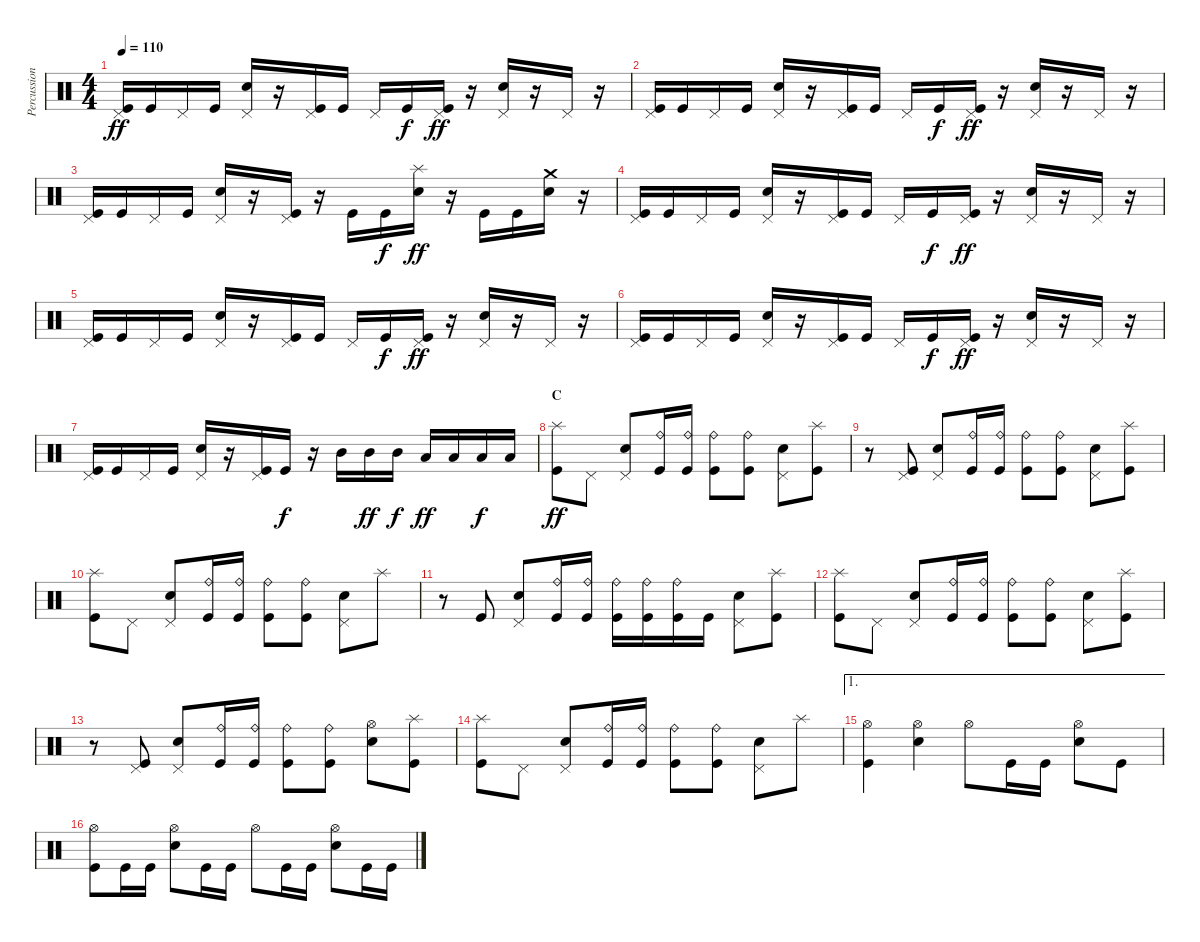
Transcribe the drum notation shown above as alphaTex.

\track ("Percussion" "Percussion") {instrument percussion}
\staff {score}
\articulation defaults
\ts (4 4)
\tempo 110
\clef neutral
\ks c
("Pedal Hi-Hat (hit)" "Kick (hit)").16{dy ff} "Kick (hit)".16 "Pedal Hi-Hat (hit)".16 "Kick (hit)".16 ("Pedal Hi-Hat (hit)" "Snare (hit) 2").16 r.16 ("Pedal Hi-Hat (hit)" "Kick (hit)").16 "Kick (hit)".16 "Pedal Hi-Hat (hit)".16 "Kick (hit)".16{dy f} ("Pedal Hi-Hat (hit)" "Kick (hit)").16{dy ff} r.16 ("Pedal Hi-Hat (hit)" "Snare (hit) 2").16 r.16 "Pedal Hi-Hat (hit)".16 r.16 |
("Pedal Hi-Hat (hit)" "Kick (hit)").16 "Kick (hit)".16 "Pedal Hi-Hat (hit)".16 "Kick (hit)".16 ("Pedal Hi-Hat (hit)" "Snare (hit) 2").16 r.16 ("Pedal Hi-Hat (hit)" "Kick (hit)").16 "Kick (hit)".16 "Pedal Hi-Hat (hit)".16 "Kick (hit)".16{dy f} ("Pedal Hi-Hat (hit)" "Kick (hit)").16{dy ff} r.16 ("Pedal Hi-Hat (hit)" "Snare (hit) 2").16 r.16 "Pedal Hi-Hat (hit)".16 r.16 |
("Pedal Hi-Hat (hit)" "Kick (hit)").16 "Kick (hit)".16 "Pedal Hi-Hat (hit)".16 "Kick (hit)".16 ("Pedal Hi-Hat (hit)" "Snare (hit) 2").16 r.16 ("Pedal Hi-Hat (hit)" "Kick (hit)").16 r.16 "Kick (hit)".16 "Kick (hit)".16{dy f} ("Splash (hit)" "Snare (hit) 2").16{dy ff} r.16 "Kick (hit)".16 "Kick (hit)".16 ("Crash medium (hit)" "Snare (hit) 2").16 r.16 |
("Pedal Hi-Hat (hit)" "Kick (hit)").16 "Kick (hit)".16 "Pedal Hi-Hat (hit)".16 "Kick (hit)".16 ("Pedal Hi-Hat (hit)" "Snare (hit) 2").16 r.16 ("Pedal Hi-Hat (hit)" "Kick (hit)").16 "Kick (hit)".16 "Pedal Hi-Hat (hit)".16 "Kick (hit)".16{dy f} ("Pedal Hi-Hat (hit)" "Kick (hit)").16{dy ff} r.16 ("Pedal Hi-Hat (hit)" "Snare (hit) 2").16 r.16 "Pedal Hi-Hat (hit)".16 r.16 |
("Pedal Hi-Hat (hit)" "Kick (hit)").16 "Kick (hit)".16 "Pedal Hi-Hat (hit)".16 "Kick (hit)".16 ("Pedal Hi-Hat (hit)" "Snare (hit) 2").16 r.16 ("Pedal Hi-Hat (hit)" "Kick (hit)").16 "Kick (hit)".16 "Pedal Hi-Hat (hit)".16 "Kick (hit)".16{dy f} ("Pedal Hi-Hat (hit)" "Kick (hit)").16{dy ff} r.16 ("Pedal Hi-Hat (hit)" "Snare (hit) 2").16 r.16 "Pedal Hi-Hat (hit)".16 r.16 |
("Pedal Hi-Hat (hit)" "Kick (hit)").16 "Kick (hit)".16 "Pedal Hi-Hat (hit)".16 "Kick (hit)".16 ("Pedal Hi-Hat (hit)" "Snare (hit) 2").16 r.16 ("Pedal Hi-Hat (hit)" "Kick (hit)").16 "Kick (hit)".16 "Pedal Hi-Hat (hit)".16 "Kick (hit)".16{dy f} ("Pedal Hi-Hat (hit)" "Kick (hit)").16{dy ff} r.16 ("Pedal Hi-Hat (hit)" "Snare (hit) 2").16 r.16 "Pedal Hi-Hat (hit)".16 r.16 |
("Pedal Hi-Hat (hit)" "Kick (hit)").16 "Kick (hit)".16 "Pedal Hi-Hat (hit)".16 "Kick (hit)".16 ("Pedal Hi-Hat (hit)" "Snare (hit) 2").16 r.16 ("Pedal Hi-Hat (hit)" "Kick (hit)").16 "Kick (hit)".16{dy f} r.16 "Mid Tom (hit)".16 "Mid Tom (hit)".16{dy ff} "Mid Tom (hit)".16{dy f} "Low Tom (hit)".16{dy ff} "Low Tom (hit)".16 "Low Tom (hit)".16{dy f} "Low Tom (hit)".16 |
\section ("" "C")
("Splash (hit)" "Kick (hit)").8{dy ff} "Pedal Hi-Hat (hit)".8 ("Pedal Hi-Hat (hit)" "Snare (hit) 2").8 ("Ride (bell)" "Kick (hit)").16 ("Ride (bell)" "Kick (hit)").16 ("Ride (bell)" "Kick (hit)").8 ("Ride (bell)" "Kick (hit)").8 ("Pedal Hi-Hat (hit)" "Snare (hit) 2").8 ("Splash (hit)" "Kick (hit)").8 |
r.8 ("Pedal Hi-Hat (hit)" "Kick (hit)").8 ("Pedal Hi-Hat (hit)" "Snare (hit) 2").8 ("Ride (bell)" "Kick (hit)").16 ("Ride (bell)" "Kick (hit)").16 ("Ride (bell)" "Kick (hit)").8 ("Ride (bell)" "Kick (hit)").8 ("Pedal Hi-Hat (hit)" "Snare (hit) 2").8 ("Splash (hit)" "Kick (hit)").8 |
("Splash (hit)" "Kick (hit)").8 "Pedal Hi-Hat (hit)".8 ("Pedal Hi-Hat (hit)" "Snare (hit) 2").8 ("Ride (bell)" "Kick (hit)").16 ("Ride (bell)" "Kick (hit)").16 ("Ride (bell)" "Kick (hit)").8 ("Ride (bell)" "Kick (hit)").8 ("Pedal Hi-Hat (hit)" "Snare (hit) 2").8 "Splash (hit)".8 |
r.8 "Kick (hit)".8 ("Pedal Hi-Hat (hit)" "Snare (hit) 2").8 ("Ride (bell)" "Kick (hit)").16 ("Ride (bell)" "Kick (hit)").16 ("Ride (bell)" "Kick (hit)").16 ("Ride (bell)" "Kick (hit)").16 ("Ride (bell)" "Kick (hit)").16 "Kick (hit)".16 ("Pedal Hi-Hat (hit)" "Snare (hit) 2").8 ("Splash (hit)" "Kick (hit)").8 |
("Splash (hit)" "Kick (hit)").8 "Pedal Hi-Hat (hit)".8 ("Pedal Hi-Hat (hit)" "Snare (hit) 2").8 ("Ride (bell)" "Kick (hit)").16 ("Ride (bell)" "Kick (hit)").16 ("Ride (bell)" "Kick (hit)").8 ("Ride (bell)" "Kick (hit)").8 ("Pedal Hi-Hat (hit)" "Snare (hit) 2").8 ("Splash (hit)" "Kick (hit)").8 |
r.8 ("Pedal Hi-Hat (hit)" "Kick (hit)").8 ("Pedal Hi-Hat (hit)" "Snare (hit) 2").8 ("Ride (bell)" "Kick (hit)").16 ("Ride (bell)" "Kick (hit)").16 ("Ride (bell)" "Kick (hit)").8 ("Ride (bell)" "Kick (hit)").8 ("Hi-Hat (open)" "Snare (hit) 2").8 ("Splash (hit)" "Kick (hit)").8 |
("Splash (hit)" "Kick (hit)").8 "Pedal Hi-Hat (hit)".8 ("Pedal Hi-Hat (hit)" "Snare (hit) 2").8 ("Ride (bell)" "Kick (hit)").16 ("Ride (bell)" "Kick (hit)").16 ("Ride (bell)" "Kick (hit)").8 ("Ride (bell)" "Kick (hit)").8 ("Pedal Hi-Hat (hit)" "Snare (hit) 2").8 "Splash (hit)".8 |
\ae 1
("Hi-Hat (open)" "Kick (hit)").4 ("Hi-Hat (open)" "Snare (hit) 2").4 "Hi-Hat (open)".8 "Kick (hit)".16 "Kick (hit)".16 ("Hi-Hat (open)" "Snare (hit) 2").8 "Kick (hit)".8 |
("Hi-Hat (open)" "Kick (hit)").8 "Kick (hit)".16 "Kick (hit)".16 ("Hi-Hat (open)" "Snare (hit) 2").8 "Kick (hit)".16 "Kick (hit)".16 "Hi-Hat (open)".8 "Kick (hit)".16 "Kick (hit)".16 ("Hi-Hat (open)" "Snare (hit) 2").8 "Kick (hit)".16 "Kick (hit)".16
